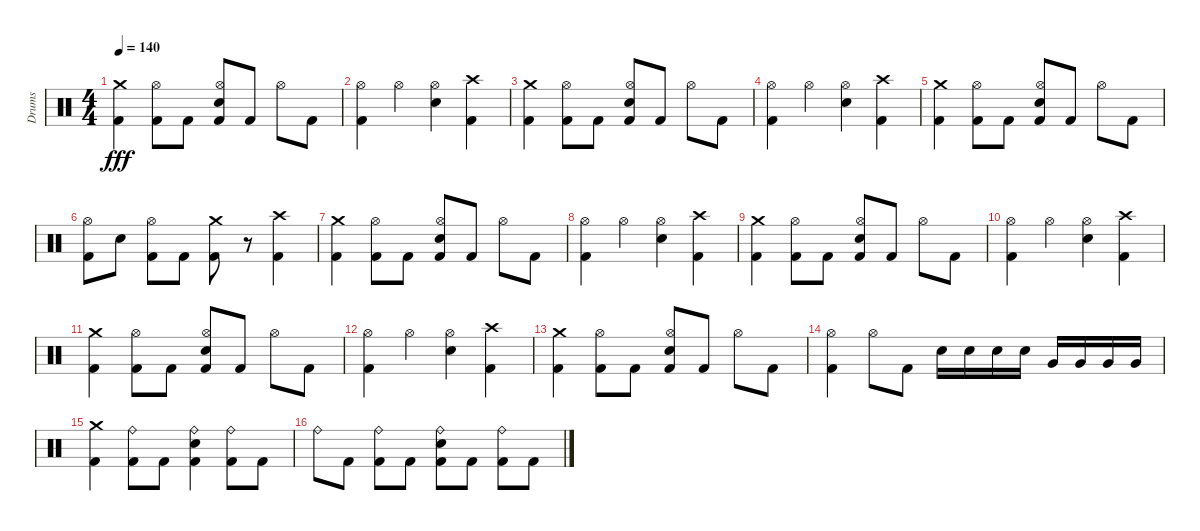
\track ("Drums" "Drums") {instrument percussion}
\staff {score}
\articulation defaults
\ts (4 4)
\tempo 140
\clef neutral
\ks c
("Kick (hit) 2" "Crash medium (hit)").4{dy fff} ("Kick (hit) 2" "Hi-Hat (open)").8 "Kick (hit) 2".8 ("Kick (hit) 2" "Electric Snare (hit)" "Hi-Hat (open)").8 "Kick (hit) 2".8 "Hi-Hat (open)".8 "Kick (hit) 2".8 |
("Kick (hit) 2" "Hi-Hat (open)").4 "Hi-Hat (open)".4 ("Electric Snare (hit)" "Hi-Hat (open)").4 ("Kick (hit) 2" "Crash high (hit)").4 |
("Kick (hit) 2" "Crash medium (hit)").4 ("Kick (hit) 2" "Hi-Hat (open)").8 "Kick (hit) 2".8 ("Kick (hit) 2" "Electric Snare (hit)" "Hi-Hat (open)").8 "Kick (hit) 2".8 "Hi-Hat (open)".8 "Kick (hit) 2".8 |
("Kick (hit) 2" "Hi-Hat (open)").4 "Hi-Hat (open)".4 ("Electric Snare (hit)" "Hi-Hat (open)").4 ("Kick (hit) 2" "Crash high (hit)").4 |
("Kick (hit) 2" "Crash medium (hit)").4 ("Kick (hit) 2" "Hi-Hat (open)").8 "Kick (hit) 2".8 ("Kick (hit) 2" "Electric Snare (hit)" "Hi-Hat (open)").8 "Kick (hit) 2".8 "Hi-Hat (open)".8 "Kick (hit) 2".8 |
("Kick (hit) 2" "Hi-Hat (open)").8 "Electric Snare (hit)".8 ("Kick (hit) 2" "Hi-Hat (open)").8 "Kick (hit) 2".8 ("Kick (hit) 2" "Crash medium (hit)").8 r.8 ("Kick (hit) 2" "Crash high (hit)").4 |
("Kick (hit) 2" "Crash medium (hit)").4 ("Kick (hit) 2" "Hi-Hat (open)").8 "Kick (hit) 2".8 ("Kick (hit) 2" "Electric Snare (hit)" "Hi-Hat (open)").8 "Kick (hit) 2".8 "Hi-Hat (open)".8 "Kick (hit) 2".8 |
("Kick (hit) 2" "Hi-Hat (open)").4 "Hi-Hat (open)".4 ("Electric Snare (hit)" "Hi-Hat (open)").4 ("Kick (hit) 2" "Crash high (hit)").4 |
("Kick (hit) 2" "Crash medium (hit)").4 ("Kick (hit) 2" "Hi-Hat (open)").8 "Kick (hit) 2".8 ("Kick (hit) 2" "Electric Snare (hit)" "Hi-Hat (open)").8 "Kick (hit) 2".8 "Hi-Hat (open)".8 "Kick (hit) 2".8 |
("Kick (hit) 2" "Hi-Hat (open)").4 "Hi-Hat (open)".4 ("Electric Snare (hit)" "Hi-Hat (open)").4 ("Kick (hit) 2" "Crash high (hit)").4 |
("Kick (hit) 2" "Crash medium (hit)").4 ("Kick (hit) 2" "Hi-Hat (open)").8 "Kick (hit) 2".8 ("Kick (hit) 2" "Electric Snare (hit)" "Hi-Hat (open)").8 "Kick (hit) 2".8 "Hi-Hat (open)".8 "Kick (hit) 2".8 |
("Kick (hit) 2" "Hi-Hat (open)").4 "Hi-Hat (open)".4 ("Electric Snare (hit)" "Hi-Hat (open)").4 ("Kick (hit) 2" "Crash high (hit)").4 |
("Kick (hit) 2" "Crash medium (hit)").4 ("Kick (hit) 2" "Hi-Hat (open)").8 "Kick (hit) 2".8 ("Kick (hit) 2" "Electric Snare (hit)" "Hi-Hat (open)").8 "Kick (hit) 2".8 "Hi-Hat (open)".8 "Kick (hit) 2".8 |
("Kick (hit) 2" "Hi-Hat (open)").4 "Hi-Hat (open)".8 "Kick (hit) 2".8 "Electric Snare (hit)".16 "Electric Snare (hit)".16 "Electric Snare (hit)".16 "Electric Snare (hit)".16 "Very Low Tom (hit)".16 "Very Low Tom (hit)".16 "Very Low Tom (hit)".16 "Very Low Tom (hit)".16 |
("Kick (hit) 2" "Crash medium (hit)").4 ("Kick (hit) 2" "Ride (bell)").8 "Kick (hit) 2".8 ("Kick (hit) 2" "Electric Snare (hit)" "Ride (bell)").4 ("Kick (hit) 2" "Ride (bell)").8 "Kick (hit) 2".8 |
"Ride (bell)".8 "Kick (hit) 2".8 ("Kick (hit) 2" "Ride (bell)").8 "Kick (hit) 2".8 ("Kick (hit) 2" "Electric Snare (hit)" "Ride (bell)").8 "Kick (hit) 2".8 ("Kick (hit) 2" "Ride (bell)").8 "Kick (hit) 2".8
